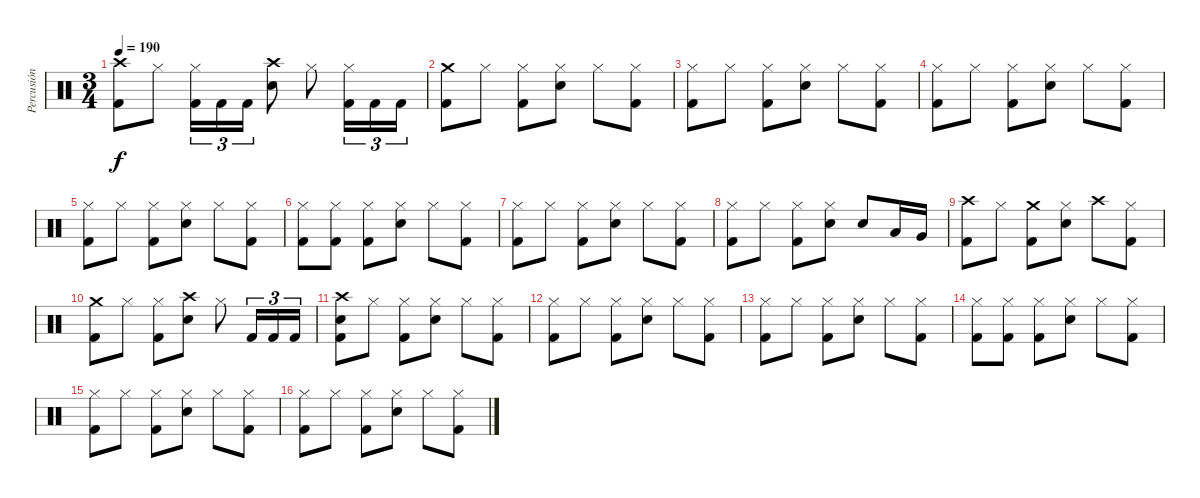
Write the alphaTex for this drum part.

\track ("Percusión" "Percusión") {instrument percussion}
\staff {score}
\articulation defaults
\ts (3 4)
\tempo 190
\clef neutral
\ks c
("Crash high (hit)" "Kick (hit) 2").8{dy f} "Hi-Hat (closed)".8 ("Hi-Hat (closed)" "Kick (hit) 2").16{tu (3 2)} "Kick (hit) 2".16{tu (3 2)} "Kick (hit) 2".16{tu (3 2)} ("Crash high (hit)" "Snare (hit) 2").8 "Hi-Hat (closed)".8 ("Hi-Hat (closed)" "Kick (hit) 2").16{tu (3 2)} "Kick (hit) 2".16{tu (3 2)} "Kick (hit) 2".16{tu (3 2)} |
("Crash medium (hit)" "Kick (hit) 2").8 "Hi-Hat (closed)".8 ("Hi-Hat (closed)" "Kick (hit) 2").8 ("Hi-Hat (closed)" "Snare (hit) 2").8 "Hi-Hat (closed)".8 ("Hi-Hat (closed)" "Kick (hit) 2").8 |
("Hi-Hat (closed)" "Kick (hit) 2").8 "Hi-Hat (closed)".8 ("Hi-Hat (closed)" "Kick (hit) 2").8 ("Hi-Hat (closed)" "Snare (hit) 2").8 "Hi-Hat (closed)".8 ("Hi-Hat (closed)" "Kick (hit) 2").8 |
("Hi-Hat (closed)" "Kick (hit) 2").8 "Hi-Hat (closed)".8 ("Hi-Hat (closed)" "Kick (hit) 2").8 ("Hi-Hat (closed)" "Snare (hit) 2").8 "Hi-Hat (closed)".8 ("Hi-Hat (closed)" "Kick (hit) 2").8 |
("Hi-Hat (closed)" "Kick (hit) 2").8 "Hi-Hat (closed)".8 ("Hi-Hat (closed)" "Kick (hit) 2").8 ("Hi-Hat (closed)" "Snare (hit) 2").8 "Hi-Hat (closed)".8 ("Hi-Hat (closed)" "Kick (hit) 2").8 |
("Hi-Hat (closed)" "Kick (hit) 2").8 ("Hi-Hat (closed)" "Kick (hit) 2").8 ("Hi-Hat (closed)" "Kick (hit) 2").8 ("Hi-Hat (closed)" "Snare (hit) 2").8 "Hi-Hat (closed)".8 ("Hi-Hat (closed)" "Kick (hit) 2").8 |
("Hi-Hat (closed)" "Kick (hit) 2").8 "Hi-Hat (closed)".8 ("Hi-Hat (closed)" "Kick (hit) 2").8 ("Hi-Hat (closed)" "Snare (hit) 2").8 "Hi-Hat (closed)".8 ("Hi-Hat (closed)" "Kick (hit) 2").8 |
("Hi-Hat (closed)" "Kick (hit) 2").8 "Hi-Hat (closed)".8 ("Hi-Hat (closed)" "Kick (hit) 2").8 ("Hi-Hat (closed)" "Snare (hit) 2").8 "Snare (hit) 2".8 "Low Tom (hit)".16 "Very Low Tom (hit)".16 |
("Crash high (hit)" "Kick (hit) 2").8 "Hi-Hat (closed)".8 ("Crash medium (hit)" "Kick (hit) 2").8 ("Hi-Hat (closed)" "Snare (hit) 2").8 "Crash high (hit)".8 ("Hi-Hat (closed)" "Kick (hit) 2").8 |
("Crash medium (hit)" "Kick (hit) 2").8 "Hi-Hat (closed)".8 ("Hi-Hat (closed)" "Kick (hit) 2").8 ("Crash high (hit)" "Snare (hit) 2").8 "Hi-Hat (closed)".8 "Kick (hit) 2".16{tu (3 2)} "Kick (hit) 2".16{tu (3 2)} "Kick (hit) 2".16{tu (3 2)} |
("Crash high (hit)" "Snare (hit) 2" "Kick (hit) 2").8 "Hi-Hat (closed)".8 ("Hi-Hat (closed)" "Kick (hit) 2").8 ("Hi-Hat (closed)" "Snare (hit) 2").8 "Hi-Hat (closed)".8 ("Hi-Hat (closed)" "Kick (hit) 2").8 |
("Hi-Hat (closed)" "Kick (hit) 2").8 "Hi-Hat (closed)".8 ("Hi-Hat (closed)" "Kick (hit) 2").8 ("Hi-Hat (closed)" "Snare (hit) 2").8 "Hi-Hat (closed)".8 ("Hi-Hat (closed)" "Kick (hit) 2").8 |
("Hi-Hat (closed)" "Kick (hit) 2").8 "Hi-Hat (closed)".8 ("Hi-Hat (closed)" "Kick (hit) 2").8 ("Hi-Hat (closed)" "Snare (hit) 2").8 "Hi-Hat (closed)".8 ("Hi-Hat (closed)" "Kick (hit) 2").8 |
("Hi-Hat (closed)" "Kick (hit) 2").8 ("Hi-Hat (closed)" "Kick (hit) 2").8 ("Hi-Hat (closed)" "Kick (hit) 2").8 ("Hi-Hat (closed)" "Snare (hit) 2").8 "Hi-Hat (closed)".8 ("Hi-Hat (closed)" "Kick (hit) 2").8 |
("Hi-Hat (closed)" "Kick (hit) 2").8 "Hi-Hat (closed)".8 ("Hi-Hat (closed)" "Kick (hit) 2").8 ("Hi-Hat (closed)" "Snare (hit) 2").8 "Hi-Hat (closed)".8 ("Hi-Hat (closed)" "Kick (hit) 2").8 |
("Hi-Hat (closed)" "Kick (hit) 2").8 "Hi-Hat (closed)".8 ("Hi-Hat (closed)" "Kick (hit) 2").8 ("Hi-Hat (closed)" "Snare (hit) 2").8 "Hi-Hat (closed)".8 ("Hi-Hat (closed)" "Kick (hit) 2").8
